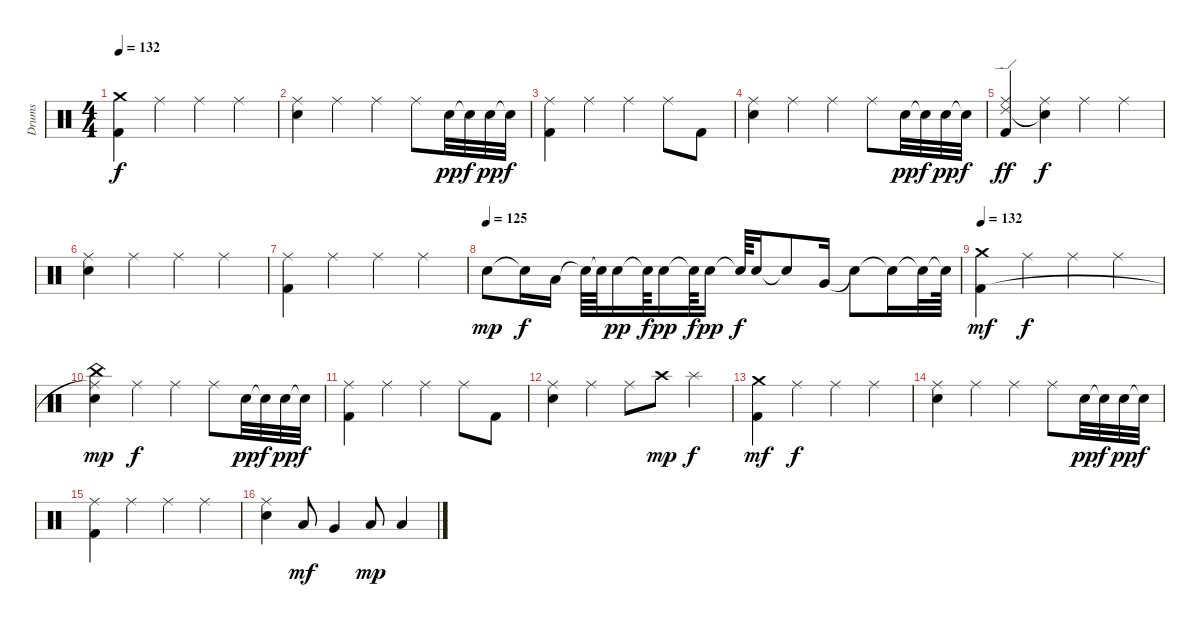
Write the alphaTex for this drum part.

\track ("Drums" "Drums") {instrument percussion}
\staff {score}
\articulation defaults
\ts (4 4)
\tempo 132
\clef neutral
\ks c
("Crash medium (hit)" "Kick (hit) 2").4{dy f} "Ride (middle)".4 "Ride (middle)".4 "Ride (middle)".4 |
("Ride (middle)" "Electric Snare (hit)").4 "Ride (middle)".4 "Ride (middle)".4 "Ride (middle)".8 "Electric Snare (hit)".32{dy pp} "Snare (hit)"{t}.32{dy f} "Electric Snare (hit)".32{dy pp} "Snare (hit)"{t}.32{dy f} |
("Ride (middle)" "Kick (hit) 2").4 "Ride (middle)".4 "Ride (middle)".4 "Ride (middle)".8 "Kick (hit) 2".8 |
("Ride (middle)" "Electric Snare (hit)").4 "Ride (middle)".4 "Ride (middle)".4 "Ride (middle)".8 "Electric Snare (hit)".32{dy pp} "Snare (hit)"{t}.32{dy f} "Electric Snare (hit)".32{dy pp} "Snare (hit)"{t}.32{dy f} |
("Ride (edge) 2" "Ride (middle)" "Kick (hit) 2").4{dy ff} ("Snare (hit)"{t} "Ride (middle)").4{dy f} "Ride (middle)".4 "Ride (middle)".4 |
("Ride (middle)" "Electric Snare (hit)").4 "Ride (middle)".4 "Ride (middle)".4 "Ride (middle)".4 |
("Ride (middle)" "Kick (hit) 2").4 "Ride (middle)".4 "Ride (middle)".4 "Ride (middle)".4 |
\tempo (125)
"Electric Snare (hit)".8{dy mp} "Snare (hit)"{t}.16{dy f} "Low Tom (hit)".16 "Snare (hit)"{t}.64 "Snare (hit)"{t}.64 "Electric Snare (hit)".16{dy pp} "Snare (hit)"{t}.64{dy f} "Electric Snare (hit)".16{dy pp} "Snare (hit)"{t}.64{dy f} "Electric Snare (hit)".16{dy pp} "Snare (hit)"{t}.64{dy f} "Electric Snare (hit)".16 "Snare (hit)"{t}.8 "Very Low Tom (hit)".16 "Snare (hit)"{t}.8 "Snare (hit)"{t}.16 "Snare (hit)"{t}.32 "Snare (hit)"{t}.64 |
\tempo 132
("Crash medium (hit)" "Kick (hit) 2").4{dy mf} "Ride (middle)".4{dy f} "Ride (middle)".4 "Ride (middle)".4 |
("China (hit)" "Ride (middle)"{t} "Electric Snare (hit)").4{dy mp} "Ride (middle)".4{dy f} "Ride (middle)".4 "Ride (middle)".8 "Electric Snare (hit)".32{dy pp} "Snare (hit)"{t}.32{dy f} "Electric Snare (hit)".32{dy pp} "Snare (hit)"{t}.32{dy f} |
("Ride (middle)" "Kick (hit) 2").4 "Ride (middle)".4 "Ride (middle)".4 "Ride (middle)".8 "Kick (hit) 2".8 |
("Ride (middle)" "Electric Snare (hit)").4 "Ride (middle)".4 "Ride (middle)".8 "Crash high (hit)".8{dy mp} "Splash (hit)".4{dy f} |
("Crash medium (hit)" "Kick (hit) 2").4{dy mf volume 0} "Ride (middle)".4{dy f} "Ride (middle)".4 "Ride (middle)".4 |
("Ride (middle)" "Electric Snare (hit)").4 "Ride (middle)".4 "Ride (middle)".4 "Ride (middle)".8 "Electric Snare (hit)".32{dy pp} "Snare (hit)"{t}.32{dy f} "Electric Snare (hit)".32{dy pp} "Snare (hit)"{t}.32{dy f} |
("Ride (middle)" "Kick (hit) 2").4 "Ride (middle)".4 "Ride (middle)".4 "Ride (middle)".4 |
("Ride (middle)" "Electric Snare (hit)").4 "Low Tom (hit)".8{dy mf} "Very Low Tom (hit)".4 "Low Floor Tom (hit)".8{dy mp} "Low Floor Tom (hit)".4
